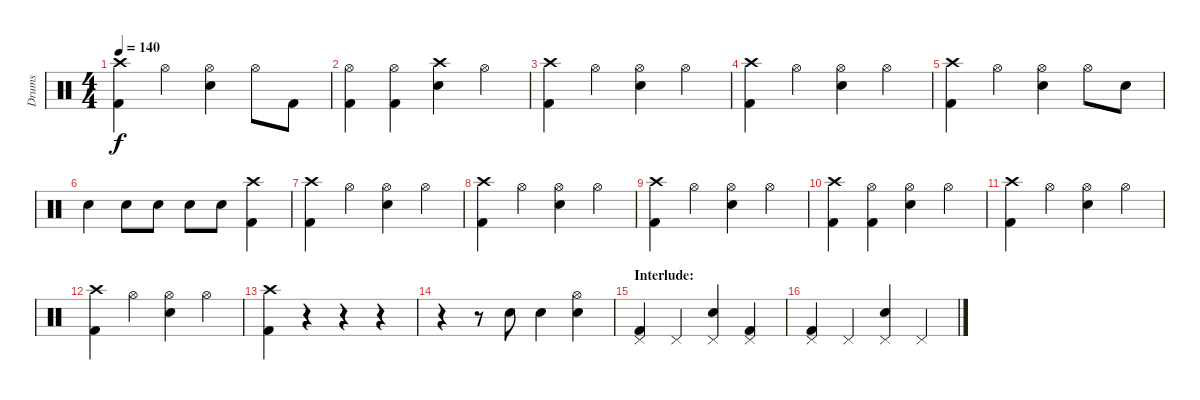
\track ("Drums" "Drums") {instrument percussion}
\staff {score}
\articulation defaults
\ts (4 4)
\tempo 140
\clef neutral
\ks c
("Crash high (hit)" "Kick (hit) 2").4{dy f} "Hi-Hat (open)".4 ("Hi-Hat (open)" "Electric Snare (hit)").4 "Hi-Hat (open)".8 "Kick (hit) 2".8 |
("Hi-Hat (open)" "Kick (hit) 2").4 ("Hi-Hat (open)" "Kick (hit) 2").4 ("Crash high (hit)" "Electric Snare (hit)").4 "Hi-Hat (open)".4 |
("Crash high (hit)" "Kick (hit) 2").4 "Hi-Hat (open)".4 ("Hi-Hat (open)" "Electric Snare (hit)").4 "Hi-Hat (open)".4 |
("Crash high (hit)" "Kick (hit) 2").4 "Hi-Hat (open)".4 ("Hi-Hat (open)" "Electric Snare (hit)").4 "Hi-Hat (open)".4 |
("Crash high (hit)" "Kick (hit) 2").4 "Hi-Hat (open)".4 ("Hi-Hat (open)" "Electric Snare (hit)").4 "Hi-Hat (open)".8 "Electric Snare (hit)".8 |
"Electric Snare (hit)".4 "Electric Snare (hit)".8 "Electric Snare (hit)".8 "Electric Snare (hit)".8 "Electric Snare (hit)".8 ("Crash high (hit)" "Kick (hit) 2").4 |
("Crash high (hit)" "Kick (hit) 2").4 "Hi-Hat (open)".4 ("Hi-Hat (open)" "Electric Snare (hit)").4 "Hi-Hat (open)".4 |
("Crash high (hit)" "Kick (hit) 2").4 "Hi-Hat (open)".4 ("Hi-Hat (open)" "Electric Snare (hit)").4 "Hi-Hat (open)".4 |
("Crash high (hit)" "Kick (hit) 2").4 "Hi-Hat (open)".4 ("Hi-Hat (open)" "Electric Snare (hit)").4 "Hi-Hat (open)".4 |
("Crash high (hit)" "Kick (hit) 2").4 ("Hi-Hat (open)" "Kick (hit) 2").4 ("Hi-Hat (open)" "Electric Snare (hit)").4 "Hi-Hat (open)".4 |
("Crash high (hit)" "Kick (hit) 2").4 "Hi-Hat (open)".4 ("Hi-Hat (open)" "Electric Snare (hit)").4 "Hi-Hat (open)".4 |
("Crash high (hit)" "Kick (hit) 2").4 "Hi-Hat (open)".4 ("Hi-Hat (open)" "Electric Snare (hit)").4 "Hi-Hat (open)".4 |
("Crash high (hit)" "Kick (hit) 2").4 r.4 r.4 r.4 |
r.4 r.8 "Electric Snare (hit)".8 "Electric Snare (hit)".4 ("Hi-Hat (open)" "Electric Snare (hit)").4 |
\section ("" "Interlude:")
("Pedal Hi-Hat (hit)" "Kick (hit) 2").4 "Pedal Hi-Hat (hit)".4 ("Pedal Hi-Hat (hit)" "Electric Snare (hit)").4 ("Pedal Hi-Hat (hit)" "Kick (hit) 2").4 |
("Pedal Hi-Hat (hit)" "Kick (hit) 2").4 "Pedal Hi-Hat (hit)".4 ("Pedal Hi-Hat (hit)" "Electric Snare (hit)").4 "Pedal Hi-Hat (hit)".4
